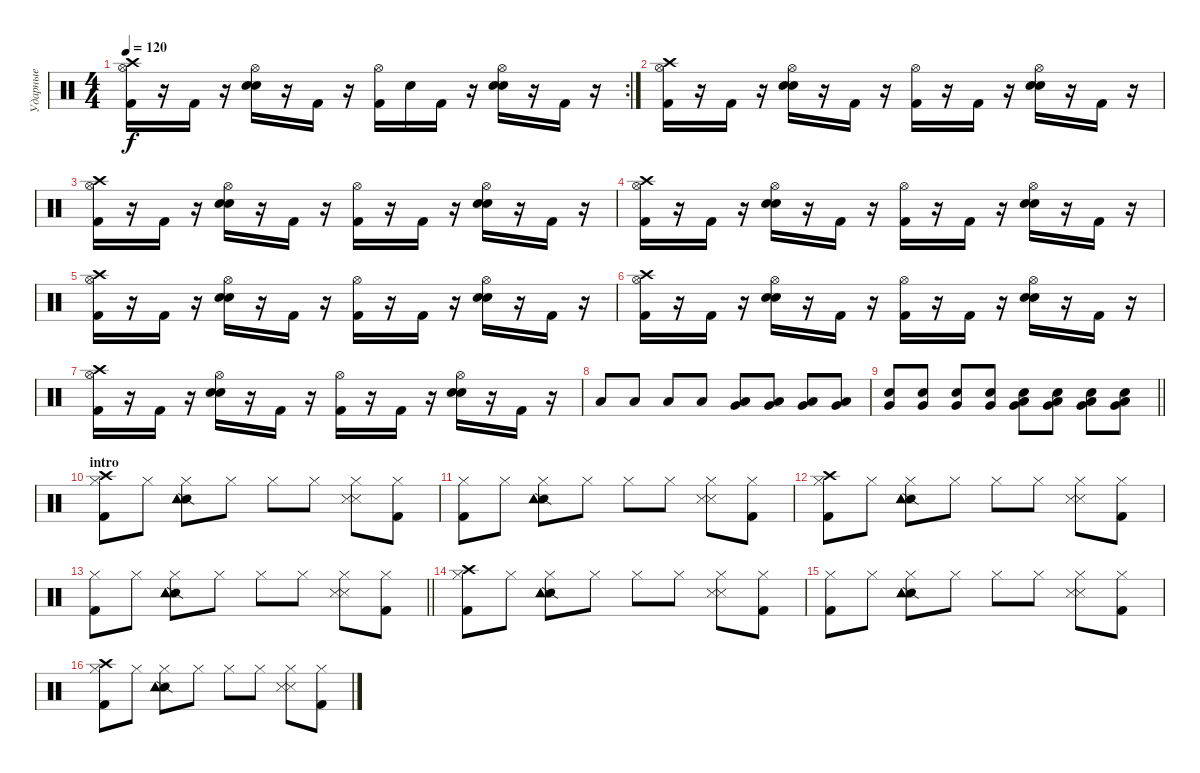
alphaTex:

\track ("Ударные" "Ударные") {instrument percussion}
\staff {score}
\articulation defaults
\rc 2
\ts (4 4)
\tempo 120
\clef neutral
\ks c
("Crash high (hit)" "Kick (hit) 2" "Hi-Hat (open)").16{dy f} r.16 "Kick (hit) 2".16 r.16 ("Electric Snare (hit)" "Electric Snare (hit)" "Hi-Hat (open)").16 r.16 "Kick (hit) 2".16 r.16 ("Kick (hit) 2" "Hi-Hat (open)").16 "Electric Snare (hit)".16 "Kick (hit) 2".16 r.16 ("Electric Snare (hit)" "Electric Snare (hit)" "Hi-Hat (open)").16 r.16 "Kick (hit) 2".16 r.16 |
("Crash high (hit)" "Kick (hit) 2" "Hi-Hat (open)").16 r.16 "Kick (hit) 2".16 r.16 ("Electric Snare (hit)" "Electric Snare (hit)" "Hi-Hat (open)").16 r.16 "Kick (hit) 2".16 r.16 ("Kick (hit) 2" "Hi-Hat (open)").16 r.16 "Kick (hit) 2".16 r.16 ("Electric Snare (hit)" "Electric Snare (hit)" "Hi-Hat (open)").16 r.16 "Kick (hit) 2".16 r.16 |
("Crash high (hit)" "Kick (hit) 2" "Hi-Hat (open)").16 r.16 "Kick (hit) 2".16 r.16 ("Electric Snare (hit)" "Electric Snare (hit)" "Hi-Hat (open)").16 r.16 "Kick (hit) 2".16 r.16 ("Kick (hit) 2" "Hi-Hat (open)").16 r.16 "Kick (hit) 2".16 r.16 ("Electric Snare (hit)" "Electric Snare (hit)" "Hi-Hat (open)").16 r.16 "Kick (hit) 2".16 r.16 |
("Crash high (hit)" "Kick (hit) 2" "Hi-Hat (open)").16 r.16 "Kick (hit) 2".16 r.16 ("Electric Snare (hit)" "Electric Snare (hit)" "Hi-Hat (open)").16 r.16 "Kick (hit) 2".16 r.16 ("Kick (hit) 2" "Hi-Hat (open)").16 r.16 "Kick (hit) 2".16 r.16 ("Electric Snare (hit)" "Electric Snare (hit)" "Hi-Hat (open)").16 r.16 "Kick (hit) 2".16 r.16 |
("Crash high (hit)" "Kick (hit) 2" "Hi-Hat (open)").16 r.16 "Kick (hit) 2".16 r.16 ("Electric Snare (hit)" "Electric Snare (hit)" "Hi-Hat (open)").16 r.16 "Kick (hit) 2".16 r.16 ("Kick (hit) 2" "Hi-Hat (open)").16 r.16 "Kick (hit) 2".16 r.16 ("Electric Snare (hit)" "Electric Snare (hit)" "Hi-Hat (open)").16 r.16 "Kick (hit) 2".16 r.16 |
("Crash high (hit)" "Kick (hit) 2" "Hi-Hat (open)").16 r.16 "Kick (hit) 2".16 r.16 ("Electric Snare (hit)" "Electric Snare (hit)" "Hi-Hat (open)").16 r.16 "Kick (hit) 2".16 r.16 ("Kick (hit) 2" "Hi-Hat (open)").16 r.16 "Kick (hit) 2".16 r.16 ("Electric Snare (hit)" "Electric Snare (hit)" "Hi-Hat (open)").16 r.16 "Kick (hit) 2".16 r.16 |
("Crash high (hit)" "Kick (hit) 2" "Hi-Hat (open)").16 r.16 "Kick (hit) 2".16 r.16 ("Electric Snare (hit)" "Electric Snare (hit)" "Hi-Hat (open)").16 r.16 "Kick (hit) 2".16 r.16 ("Kick (hit) 2" "Hi-Hat (open)").16 r.16 "Kick (hit) 2".16 r.16 ("Electric Snare (hit)" "Electric Snare (hit)" "Hi-Hat (open)").16 r.16 "Kick (hit) 2".16 r.16 |
"Low Tom (hit)".8 "Low Tom (hit)".8 "Low Tom (hit)".8 "Low Tom (hit)".8 ("Very Low Tom (hit)" "Low Tom (hit)").8 ("Very Low Tom (hit)" "Low Tom (hit)").8 ("Very Low Tom (hit)" "Low Tom (hit)").8 ("Very Low Tom (hit)" "Low Tom (hit)").8 |
\barLineRight lightlight
("Very Low Tom (hit)" "Electric Snare (hit)").8 ("Very Low Tom (hit)" "Electric Snare (hit)").8 ("Very Low Tom (hit)" "Electric Snare (hit)").8 ("Very Low Tom (hit)" "Electric Snare (hit)").8 ("Low Floor Tom (hit)" "Very Low Tom (hit)" "Electric Snare (hit)").8 ("Low Floor Tom (hit)" "Very Low Tom (hit)" "Electric Snare (hit)").8 ("Low Floor Tom (hit)" "Very Low Tom (hit)" "Electric Snare (hit)").8 ("Low Floor Tom (hit)" "Very Low Tom (hit)" "Electric Snare (hit)").8 |
\section ("" "intro")
("Crash high (hit)" "Kick (hit) 2" "Hi-Hat (closed)").8 "Hi-Hat (closed)".8 ("Snare (side stick) 2" "Tambourine (hit)" "Tambourine (hit)" "Hi-Hat (closed)").8 "Hi-Hat (closed)".8 "Hi-Hat (closed)".8 "Hi-Hat (closed)".8 ("Snare (side stick) 3" "Snare (side stick) 3" "Hi-Hat (closed)").8 ("Kick (hit) 2" "Hi-Hat (closed)").8 |
("Kick (hit) 2" "Hi-Hat (closed)").8 "Hi-Hat (closed)".8 ("Snare (side stick) 2" "Tambourine (hit)" "Tambourine (hit)" "Hi-Hat (closed)").8 "Hi-Hat (closed)".8 "Hi-Hat (closed)".8 "Hi-Hat (closed)".8 ("Snare (side stick) 3" "Snare (side stick) 3" "Hi-Hat (closed)").8 ("Kick (hit) 2" "Hi-Hat (closed)").8 |
("Crash high (hit)" "Kick (hit) 2" "Hi-Hat (closed)").8 "Hi-Hat (closed)".8 ("Snare (side stick) 2" "Tambourine (hit)" "Tambourine (hit)" "Hi-Hat (closed)").8 "Hi-Hat (closed)".8 "Hi-Hat (closed)".8 "Hi-Hat (closed)".8 ("Snare (side stick) 3" "Snare (side stick) 3" "Hi-Hat (closed)").8 ("Kick (hit) 2" "Hi-Hat (closed)").8 |
\barLineRight lightlight
("Kick (hit) 2" "Hi-Hat (closed)").8 "Hi-Hat (closed)".8 ("Snare (side stick) 2" "Tambourine (hit)" "Tambourine (hit)" "Hi-Hat (closed)").8 "Hi-Hat (closed)".8 "Hi-Hat (closed)".8 "Hi-Hat (closed)".8 ("Snare (side stick) 3" "Snare (side stick) 3" "Hi-Hat (closed)").8 ("Kick (hit) 2" "Hi-Hat (closed)").8 |
("Crash high (hit)" "Kick (hit) 2" "Hi-Hat (closed)").8 "Hi-Hat (closed)".8 ("Snare (side stick) 2" "Tambourine (hit)" "Tambourine (hit)" "Hi-Hat (closed)").8 "Hi-Hat (closed)".8 "Hi-Hat (closed)".8 "Hi-Hat (closed)".8 ("Snare (side stick) 3" "Snare (side stick) 3" "Hi-Hat (closed)").8 ("Kick (hit) 2" "Hi-Hat (closed)").8 |
("Kick (hit) 2" "Hi-Hat (closed)").8 "Hi-Hat (closed)".8 ("Snare (side stick) 2" "Tambourine (hit)" "Tambourine (hit)" "Hi-Hat (closed)").8 "Hi-Hat (closed)".8 "Hi-Hat (closed)".8 "Hi-Hat (closed)".8 ("Snare (side stick) 3" "Snare (side stick) 3" "Hi-Hat (closed)").8 ("Kick (hit) 2" "Hi-Hat (closed)").8 |
("Crash high (hit)" "Kick (hit) 2" "Hi-Hat (closed)").8 "Hi-Hat (closed)".8 ("Snare (side stick) 2" "Tambourine (hit)" "Tambourine (hit)" "Hi-Hat (closed)").8 "Hi-Hat (closed)".8 "Hi-Hat (closed)".8 "Hi-Hat (closed)".8 ("Snare (side stick) 3" "Snare (side stick) 3" "Hi-Hat (closed)").8 ("Kick (hit) 2" "Hi-Hat (closed)").8
